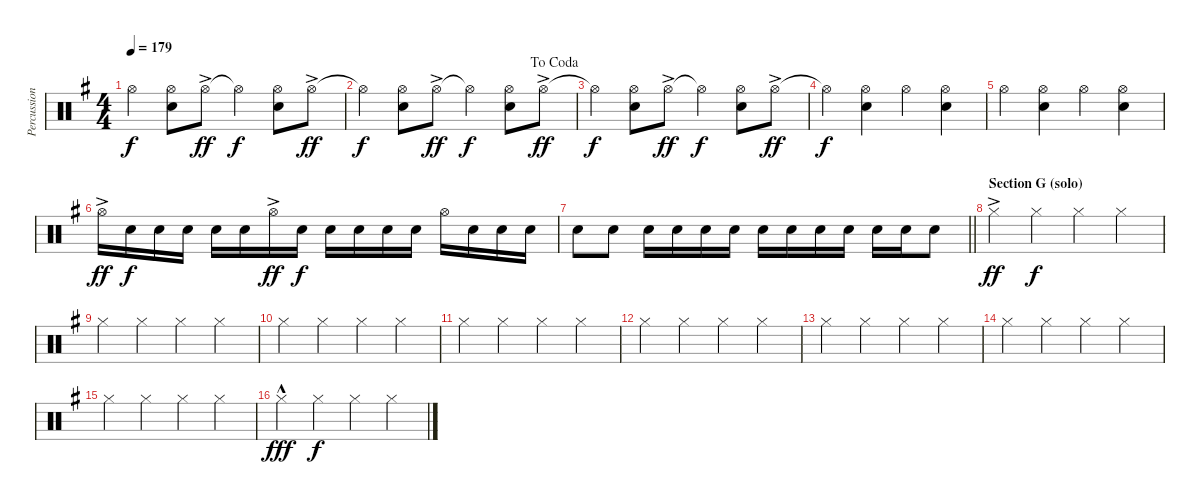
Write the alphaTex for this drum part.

\track ("Percussion 01" "Percussion") {instrument percussion}
\staff {score}
\articulation defaults
\ts (4 4)
\tempo 179
\clef neutral
\ks g "Hi-Hat (open)"{t}.4{dy f}
("Hi-Hat (open)" "Snare (hit) 2").8 "Hi-Hat (open)"{ac}.8{dy ff} "Hi-Hat (open)"{t}.4{dy f} ("Hi-Hat (open)" "Snare (hit) 2").8 "Hi-Hat (open)"{ac}.8{dy ff} |
\jump dacoda "Hi-Hat (open)"{t}.4{dy f}
("Hi-Hat (open)" "Snare (hit) 2").8 "Hi-Hat (open)"{ac}.8{dy ff} "Hi-Hat (open)"{t}.4{dy f} ("Hi-Hat (open)" "Snare (hit) 2").8 "Hi-Hat (open)"{ac}.8{dy ff} |
"Hi-Hat (open)"{t}.4{dy f} ("Hi-Hat (open)" "Snare (hit) 2").8 "Hi-Hat (open)"{ac}.8{dy ff} "Hi-Hat (open)"{t}.4{dy f} ("Hi-Hat (open)" "Snare (hit) 2").8 "Hi-Hat (open)"{ac}.8{dy ff} |
"Hi-Hat (open)"{t}.4{dy f} ("Hi-Hat (open)" "Snare (hit) 2").4 "Hi-Hat (open)".4 ("Hi-Hat (open)" "Snare (hit) 2").4 |
"Hi-Hat (open)".4 ("Hi-Hat (open)" "Snare (hit) 2").4 "Hi-Hat (open)".4 ("Hi-Hat (open)" "Snare (hit) 2").4 |
"Hi-Hat (open)"{ac}.16{dy ff} "Snare (hit) 2".16{dy f} "Snare (hit) 2".16 "Snare (hit) 2".16 "Snare (hit) 2".16 "Snare (hit) 2".16 "Hi-Hat (open)"{ac}.16{dy ff} "Snare (hit) 2".16{dy f} "Snare (hit) 2".16 "Snare (hit) 2".16 "Snare (hit) 2".16 "Snare (hit) 2".16 "Hi-Hat (open)".16 "Snare (hit) 2".16 "Snare (hit) 2".16 "Snare (hit) 2".16 |
\barLineRight lightlight "Snare (hit) 2".8 "Snare (hit) 2".8 "Snare (hit) 2".16 "Snare (hit) 2".16 "Snare (hit) 2".16 "Snare (hit) 2".16 "Snare (hit) 2".16 "Snare (hit) 2".16 "Snare (hit) 2".16 "Snare (hit) 2".16 "Snare (hit) 2".16 "Snare (hit) 2".16 "Snare (hit) 2".8
|
\section ("" "Section G (solo)")
"Hi-Hat (closed)"{ac}.4{dy ff} "Hi-Hat (closed)".4{dy f} "Hi-Hat (closed)".4 "Hi-Hat (closed)".4 |
"Hi-Hat (closed)".4 "Hi-Hat (closed)".4 "Hi-Hat (closed)".4 "Hi-Hat (closed)".4 |
"Hi-Hat (closed)".4 "Hi-Hat (closed)".4 "Hi-Hat (closed)".4 "Hi-Hat (closed)".4 |
"Hi-Hat (closed)".4 "Hi-Hat (closed)".4 "Hi-Hat (closed)".4 "Hi-Hat (closed)".4 |
"Hi-Hat (closed)".4 "Hi-Hat (closed)".4 "Hi-Hat (closed)".4 "Hi-Hat (closed)".4 |
"Hi-Hat (closed)".4 "Hi-Hat (closed)".4 "Hi-Hat (closed)".4 "Hi-Hat (closed)".4 |
"Hi-Hat (closed)".4 "Hi-Hat (closed)".4 "Hi-Hat (closed)".4 "Hi-Hat (closed)".4 |
"Hi-Hat (closed)".4 "Hi-Hat (closed)".4 "Hi-Hat (closed)".4 "Hi-Hat (closed)".4 |
"Hi-Hat (closed)"{hac}.4{dy fff} "Hi-Hat (closed)".4{dy f} "Hi-Hat (closed)".4 "Hi-Hat (closed)".4
